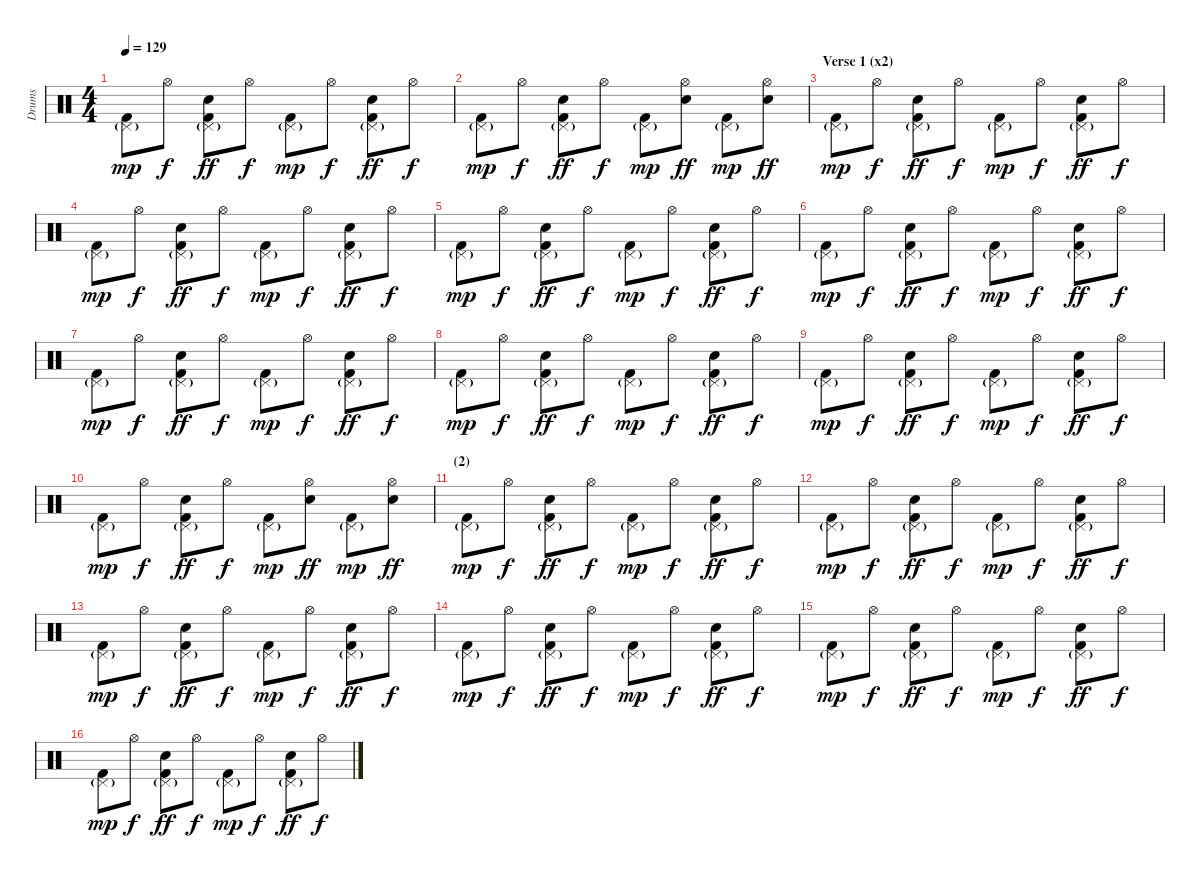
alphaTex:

\track ("Drums" "Drums") {instrument percussion}
\staff {score}
\articulation defaults
\ts (4 4)
\tempo 129
\clef neutral
\ks c
("Pedal Hi-Hat (hit)"{g} "Kick (hit) 2").8{dy mp} "Hi-Hat (open)".8{dy f} ("Pedal Hi-Hat (hit)"{g} "Electric Snare (hit)" "Kick (hit) 2").8{dy ff} "Hi-Hat (open)".8{dy f} ("Pedal Hi-Hat (hit)"{g} "Kick (hit) 2").8{dy mp} "Hi-Hat (open)".8{dy f} ("Pedal Hi-Hat (hit)"{g} "Electric Snare (hit)" "Kick (hit) 2").8{dy ff} "Hi-Hat (open)".8{dy f} |
("Pedal Hi-Hat (hit)"{g} "Kick (hit) 2").8{dy mp} "Hi-Hat (open)".8{dy f} ("Pedal Hi-Hat (hit)"{g} "Electric Snare (hit)" "Kick (hit) 2").8{dy ff} "Hi-Hat (open)".8{dy f} ("Pedal Hi-Hat (hit)"{g} "Kick (hit) 2").8{dy mp} ("Hi-Hat (open)" "Electric Snare (hit)").8{dy ff} ("Pedal Hi-Hat (hit)"{g} "Kick (hit) 2").8{dy mp} ("Hi-Hat (open)" "Electric Snare (hit)").8{dy ff} |
\section ("" "Verse 1 (x2)")
("Pedal Hi-Hat (hit)"{g} "Kick (hit) 2").8{dy mp} "Hi-Hat (open)".8{dy f} ("Pedal Hi-Hat (hit)"{g} "Electric Snare (hit)" "Kick (hit) 2").8{dy ff} "Hi-Hat (open)".8{dy f} ("Pedal Hi-Hat (hit)"{g} "Kick (hit) 2").8{dy mp} "Hi-Hat (open)".8{dy f} ("Pedal Hi-Hat (hit)"{g} "Electric Snare (hit)" "Kick (hit) 2").8{dy ff} "Hi-Hat (open)".8{dy f} |
("Pedal Hi-Hat (hit)"{g} "Kick (hit) 2").8{dy mp} "Hi-Hat (open)".8{dy f} ("Pedal Hi-Hat (hit)"{g} "Electric Snare (hit)" "Kick (hit) 2").8{dy ff} "Hi-Hat (open)".8{dy f} ("Pedal Hi-Hat (hit)"{g} "Kick (hit) 2").8{dy mp} "Hi-Hat (open)".8{dy f} ("Pedal Hi-Hat (hit)"{g} "Electric Snare (hit)" "Kick (hit) 2").8{dy ff} "Hi-Hat (open)".8{dy f} |
("Pedal Hi-Hat (hit)"{g} "Kick (hit) 2").8{dy mp} "Hi-Hat (open)".8{dy f} ("Pedal Hi-Hat (hit)"{g} "Electric Snare (hit)" "Kick (hit) 2").8{dy ff} "Hi-Hat (open)".8{dy f} ("Pedal Hi-Hat (hit)"{g} "Kick (hit) 2").8{dy mp} "Hi-Hat (open)".8{dy f} ("Pedal Hi-Hat (hit)"{g} "Electric Snare (hit)" "Kick (hit) 2").8{dy ff} "Hi-Hat (open)".8{dy f} |
("Pedal Hi-Hat (hit)"{g} "Kick (hit) 2").8{dy mp} "Hi-Hat (open)".8{dy f} ("Pedal Hi-Hat (hit)"{g} "Electric Snare (hit)" "Kick (hit) 2").8{dy ff} "Hi-Hat (open)".8{dy f} ("Pedal Hi-Hat (hit)"{g} "Kick (hit) 2").8{dy mp} "Hi-Hat (open)".8{dy f} ("Pedal Hi-Hat (hit)"{g} "Electric Snare (hit)" "Kick (hit) 2").8{dy ff} "Hi-Hat (open)".8{dy f} |
("Pedal Hi-Hat (hit)"{g} "Kick (hit) 2").8{dy mp} "Hi-Hat (open)".8{dy f} ("Pedal Hi-Hat (hit)"{g} "Electric Snare (hit)" "Kick (hit) 2").8{dy ff} "Hi-Hat (open)".8{dy f} ("Pedal Hi-Hat (hit)"{g} "Kick (hit) 2").8{dy mp} "Hi-Hat (open)".8{dy f} ("Pedal Hi-Hat (hit)"{g} "Electric Snare (hit)" "Kick (hit) 2").8{dy ff} "Hi-Hat (open)".8{dy f} |
("Pedal Hi-Hat (hit)"{g} "Kick (hit) 2").8{dy mp} "Hi-Hat (open)".8{dy f} ("Pedal Hi-Hat (hit)"{g} "Electric Snare (hit)" "Kick (hit) 2").8{dy ff} "Hi-Hat (open)".8{dy f} ("Pedal Hi-Hat (hit)"{g} "Kick (hit) 2").8{dy mp} "Hi-Hat (open)".8{dy f} ("Pedal Hi-Hat (hit)"{g} "Electric Snare (hit)" "Kick (hit) 2").8{dy ff} "Hi-Hat (open)".8{dy f} |
("Pedal Hi-Hat (hit)"{g} "Kick (hit) 2").8{dy mp} "Hi-Hat (open)".8{dy f} ("Pedal Hi-Hat (hit)"{g} "Electric Snare (hit)" "Kick (hit) 2").8{dy ff} "Hi-Hat (open)".8{dy f} ("Pedal Hi-Hat (hit)"{g} "Kick (hit) 2").8{dy mp} "Hi-Hat (open)".8{dy f} ("Pedal Hi-Hat (hit)"{g} "Electric Snare (hit)" "Kick (hit) 2").8{dy ff} "Hi-Hat (open)".8{dy f} |
("Pedal Hi-Hat (hit)"{g} "Kick (hit) 2").8{dy mp} "Hi-Hat (open)".8{dy f} ("Pedal Hi-Hat (hit)"{g} "Electric Snare (hit)" "Kick (hit) 2").8{dy ff} "Hi-Hat (open)".8{dy f} ("Pedal Hi-Hat (hit)"{g} "Kick (hit) 2").8{dy mp} ("Hi-Hat (open)" "Electric Snare (hit)").8{dy ff} ("Pedal Hi-Hat (hit)"{g} "Kick (hit) 2").8{dy mp} ("Hi-Hat (open)" "Electric Snare (hit)").8{dy ff} |
\section ("" "(2)")
("Pedal Hi-Hat (hit)"{g} "Kick (hit) 2").8{dy mp} "Hi-Hat (open)".8{dy f} ("Pedal Hi-Hat (hit)"{g} "Electric Snare (hit)" "Kick (hit) 2").8{dy ff} "Hi-Hat (open)".8{dy f} ("Pedal Hi-Hat (hit)"{g} "Kick (hit) 2").8{dy mp} "Hi-Hat (open)".8{dy f} ("Pedal Hi-Hat (hit)"{g} "Electric Snare (hit)" "Kick (hit) 2").8{dy ff} "Hi-Hat (open)".8{dy f} |
("Pedal Hi-Hat (hit)"{g} "Kick (hit) 2").8{dy mp} "Hi-Hat (open)".8{dy f} ("Pedal Hi-Hat (hit)"{g} "Electric Snare (hit)" "Kick (hit) 2").8{dy ff} "Hi-Hat (open)".8{dy f} ("Pedal Hi-Hat (hit)"{g} "Kick (hit) 2").8{dy mp} "Hi-Hat (open)".8{dy f} ("Pedal Hi-Hat (hit)"{g} "Electric Snare (hit)" "Kick (hit) 2").8{dy ff} "Hi-Hat (open)".8{dy f} |
("Pedal Hi-Hat (hit)"{g} "Kick (hit) 2").8{dy mp} "Hi-Hat (open)".8{dy f} ("Pedal Hi-Hat (hit)"{g} "Electric Snare (hit)" "Kick (hit) 2").8{dy ff} "Hi-Hat (open)".8{dy f} ("Pedal Hi-Hat (hit)"{g} "Kick (hit) 2").8{dy mp} "Hi-Hat (open)".8{dy f} ("Pedal Hi-Hat (hit)"{g} "Electric Snare (hit)" "Kick (hit) 2").8{dy ff} "Hi-Hat (open)".8{dy f} |
("Pedal Hi-Hat (hit)"{g} "Kick (hit) 2").8{dy mp} "Hi-Hat (open)".8{dy f} ("Pedal Hi-Hat (hit)"{g} "Electric Snare (hit)" "Kick (hit) 2").8{dy ff} "Hi-Hat (open)".8{dy f} ("Pedal Hi-Hat (hit)"{g} "Kick (hit) 2").8{dy mp} "Hi-Hat (open)".8{dy f} ("Pedal Hi-Hat (hit)"{g} "Electric Snare (hit)" "Kick (hit) 2").8{dy ff} "Hi-Hat (open)".8{dy f} |
("Pedal Hi-Hat (hit)"{g} "Kick (hit) 2").8{dy mp} "Hi-Hat (open)".8{dy f} ("Pedal Hi-Hat (hit)"{g} "Electric Snare (hit)" "Kick (hit) 2").8{dy ff} "Hi-Hat (open)".8{dy f} ("Pedal Hi-Hat (hit)"{g} "Kick (hit) 2").8{dy mp} "Hi-Hat (open)".8{dy f} ("Pedal Hi-Hat (hit)"{g} "Electric Snare (hit)" "Kick (hit) 2").8{dy ff} "Hi-Hat (open)".8{dy f} |
("Pedal Hi-Hat (hit)"{g} "Kick (hit) 2").8{dy mp} "Hi-Hat (open)".8{dy f} ("Pedal Hi-Hat (hit)"{g} "Electric Snare (hit)" "Kick (hit) 2").8{dy ff} "Hi-Hat (open)".8{dy f} ("Pedal Hi-Hat (hit)"{g} "Kick (hit) 2").8{dy mp} "Hi-Hat (open)".8{dy f} ("Pedal Hi-Hat (hit)"{g} "Electric Snare (hit)" "Kick (hit) 2").8{dy ff} "Hi-Hat (open)".8{dy f}
